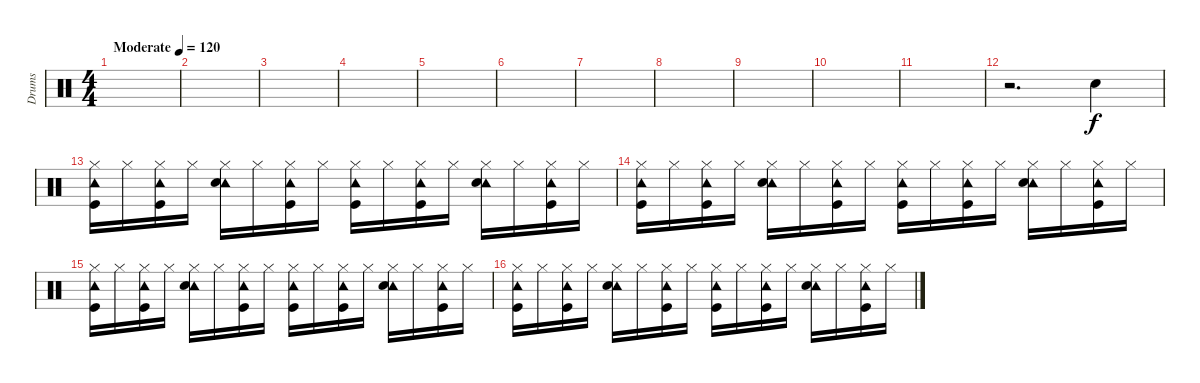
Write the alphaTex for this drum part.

\track ("Drums" "Drums") {instrument percussion}
\staff {score}
\articulation defaults
\ts (4 4)
\tempo (120 "Moderate")
\clef neutral
\ks c
|
|
|
|
|
|
|
|
|
|
|
r.2{d} "Snare (hit) 2".4 |
("Hi-Hat (closed)" "Tambourine (hit)" "Kick (hit)").16 "Hi-Hat (closed)".16 ("Hi-Hat (closed)" "Tambourine (hit)" "Kick (hit)").16 "Hi-Hat (closed)".16 ("Hi-Hat (closed)" "Tambourine (hit)" "Snare (hit) 2").16 "Hi-Hat (closed)".16 ("Hi-Hat (closed)" "Tambourine (hit)" "Kick (hit)").16 "Hi-Hat (closed)".16 ("Hi-Hat (closed)" "Tambourine (hit)" "Kick (hit)").16 "Hi-Hat (closed)".16 ("Hi-Hat (closed)" "Tambourine (hit)" "Kick (hit)").16 "Hi-Hat (closed)".16 ("Hi-Hat (closed)" "Tambourine (hit)" "Snare (hit) 2").16 "Hi-Hat (closed)".16 ("Hi-Hat (closed)" "Tambourine (hit)" "Kick (hit)").16 "Hi-Hat (closed)".16 |
("Hi-Hat (closed)" "Tambourine (hit)" "Kick (hit)").16 "Hi-Hat (closed)".16 ("Hi-Hat (closed)" "Tambourine (hit)" "Kick (hit)").16 "Hi-Hat (closed)".16 ("Hi-Hat (closed)" "Tambourine (hit)" "Snare (hit) 2").16 "Hi-Hat (closed)".16 ("Hi-Hat (closed)" "Tambourine (hit)" "Kick (hit)").16 "Hi-Hat (closed)".16 ("Hi-Hat (closed)" "Tambourine (hit)" "Kick (hit)").16 "Hi-Hat (closed)".16 ("Hi-Hat (closed)" "Tambourine (hit)" "Kick (hit)").16 "Hi-Hat (closed)".16 ("Hi-Hat (closed)" "Tambourine (hit)" "Snare (hit) 2").16 "Hi-Hat (closed)".16 ("Hi-Hat (closed)" "Tambourine (hit)" "Kick (hit)").16 "Hi-Hat (closed)".16 |
("Hi-Hat (closed)" "Tambourine (hit)" "Kick (hit)").16 "Hi-Hat (closed)".16 ("Hi-Hat (closed)" "Tambourine (hit)" "Kick (hit)").16 "Hi-Hat (closed)".16 ("Hi-Hat (closed)" "Tambourine (hit)" "Snare (hit) 2").16 "Hi-Hat (closed)".16 ("Hi-Hat (closed)" "Tambourine (hit)" "Kick (hit)").16 "Hi-Hat (closed)".16 ("Hi-Hat (closed)" "Tambourine (hit)" "Kick (hit)").16 "Hi-Hat (closed)".16 ("Hi-Hat (closed)" "Tambourine (hit)" "Kick (hit)").16 "Hi-Hat (closed)".16 ("Hi-Hat (closed)" "Tambourine (hit)" "Snare (hit) 2").16 "Hi-Hat (closed)".16 ("Hi-Hat (closed)" "Tambourine (hit)" "Kick (hit)").16 "Hi-Hat (closed)".16 |
("Hi-Hat (closed)" "Tambourine (hit)" "Kick (hit)").16 "Hi-Hat (closed)".16 ("Hi-Hat (closed)" "Tambourine (hit)" "Kick (hit)").16 "Hi-Hat (closed)".16 ("Hi-Hat (closed)" "Tambourine (hit)" "Snare (hit) 2").16 "Hi-Hat (closed)".16 ("Hi-Hat (closed)" "Tambourine (hit)" "Kick (hit)").16 "Hi-Hat (closed)".16 ("Hi-Hat (closed)" "Tambourine (hit)" "Kick (hit)").16 "Hi-Hat (closed)".16 ("Hi-Hat (closed)" "Tambourine (hit)" "Kick (hit)").16 "Hi-Hat (closed)".16 ("Hi-Hat (closed)" "Tambourine (hit)" "Snare (hit) 2").16 "Hi-Hat (closed)".16 ("Hi-Hat (closed)" "Tambourine (hit)" "Kick (hit)").16 "Hi-Hat (closed)".16
